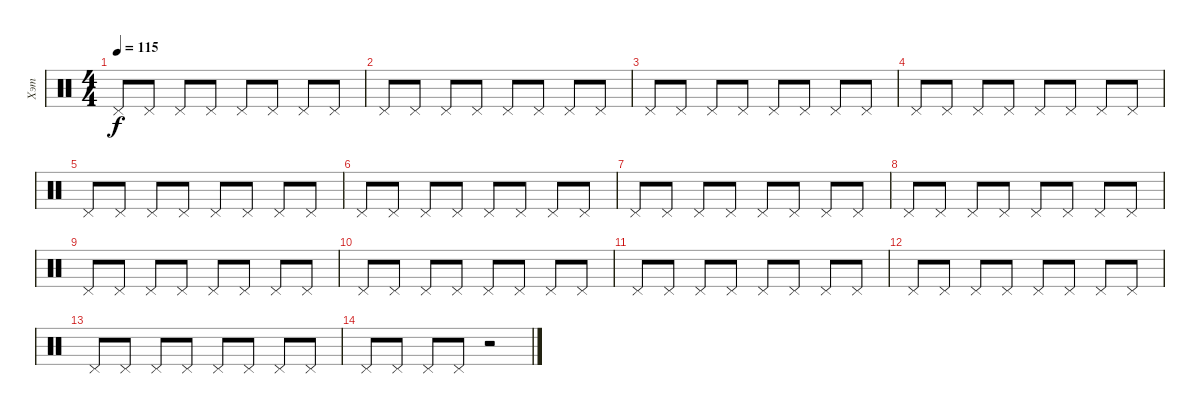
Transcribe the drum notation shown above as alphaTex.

\track ("Хэт" "Хэт") {instrument percussion}
\staff {score}
\articulation defaults
\ts (4 4)
\tempo 115
\clef neutral
\ks c "Pedal Hi-Hat (hit)".8{dy f} "Pedal Hi-Hat (hit)".8 "Pedal Hi-Hat (hit)".8 "Pedal Hi-Hat (hit)".8 "Pedal Hi-Hat (hit)".8 "Pedal Hi-Hat (hit)".8 "Pedal Hi-Hat (hit)".8 "Pedal Hi-Hat (hit)".8
|
"Pedal Hi-Hat (hit)".8 "Pedal Hi-Hat (hit)".8 "Pedal Hi-Hat (hit)".8 "Pedal Hi-Hat (hit)".8 "Pedal Hi-Hat (hit)".8 "Pedal Hi-Hat (hit)".8 "Pedal Hi-Hat (hit)".8 "Pedal Hi-Hat (hit)".8 |
"Pedal Hi-Hat (hit)".8 "Pedal Hi-Hat (hit)".8 "Pedal Hi-Hat (hit)".8 "Pedal Hi-Hat (hit)".8 "Pedal Hi-Hat (hit)".8 "Pedal Hi-Hat (hit)".8 "Pedal Hi-Hat (hit)".8 "Pedal Hi-Hat (hit)".8 |
"Pedal Hi-Hat (hit)".8 "Pedal Hi-Hat (hit)".8 "Pedal Hi-Hat (hit)".8 "Pedal Hi-Hat (hit)".8 "Pedal Hi-Hat (hit)".8 "Pedal Hi-Hat (hit)".8 "Pedal Hi-Hat (hit)".8 "Pedal Hi-Hat (hit)".8 |
"Pedal Hi-Hat (hit)".8 "Pedal Hi-Hat (hit)".8 "Pedal Hi-Hat (hit)".8 "Pedal Hi-Hat (hit)".8 "Pedal Hi-Hat (hit)".8 "Pedal Hi-Hat (hit)".8 "Pedal Hi-Hat (hit)".8 "Pedal Hi-Hat (hit)".8 |
"Pedal Hi-Hat (hit)".8 "Pedal Hi-Hat (hit)".8 "Pedal Hi-Hat (hit)".8 "Pedal Hi-Hat (hit)".8 "Pedal Hi-Hat (hit)".8 "Pedal Hi-Hat (hit)".8 "Pedal Hi-Hat (hit)".8 "Pedal Hi-Hat (hit)".8 |
"Pedal Hi-Hat (hit)".8 "Pedal Hi-Hat (hit)".8 "Pedal Hi-Hat (hit)".8 "Pedal Hi-Hat (hit)".8 "Pedal Hi-Hat (hit)".8 "Pedal Hi-Hat (hit)".8 "Pedal Hi-Hat (hit)".8 "Pedal Hi-Hat (hit)".8 |
"Pedal Hi-Hat (hit)".8 "Pedal Hi-Hat (hit)".8 "Pedal Hi-Hat (hit)".8 "Pedal Hi-Hat (hit)".8 "Pedal Hi-Hat (hit)".8 "Pedal Hi-Hat (hit)".8 "Pedal Hi-Hat (hit)".8 "Pedal Hi-Hat (hit)".8 |
"Pedal Hi-Hat (hit)".8 "Pedal Hi-Hat (hit)".8 "Pedal Hi-Hat (hit)".8 "Pedal Hi-Hat (hit)".8 "Pedal Hi-Hat (hit)".8 "Pedal Hi-Hat (hit)".8 "Pedal Hi-Hat (hit)".8 "Pedal Hi-Hat (hit)".8 |
"Pedal Hi-Hat (hit)".8 "Pedal Hi-Hat (hit)".8 "Pedal Hi-Hat (hit)".8 "Pedal Hi-Hat (hit)".8 "Pedal Hi-Hat (hit)".8 "Pedal Hi-Hat (hit)".8 "Pedal Hi-Hat (hit)".8 "Pedal Hi-Hat (hit)".8 |
"Pedal Hi-Hat (hit)".8 "Pedal Hi-Hat (hit)".8 "Pedal Hi-Hat (hit)".8 "Pedal Hi-Hat (hit)".8 "Pedal Hi-Hat (hit)".8 "Pedal Hi-Hat (hit)".8 "Pedal Hi-Hat (hit)".8 "Pedal Hi-Hat (hit)".8 |
"Pedal Hi-Hat (hit)".8 "Pedal Hi-Hat (hit)".8 "Pedal Hi-Hat (hit)".8 "Pedal Hi-Hat (hit)".8 "Pedal Hi-Hat (hit)".8 "Pedal Hi-Hat (hit)".8 "Pedal Hi-Hat (hit)".8 "Pedal Hi-Hat (hit)".8 |
"Pedal Hi-Hat (hit)".8 "Pedal Hi-Hat (hit)".8 "Pedal Hi-Hat (hit)".8 "Pedal Hi-Hat (hit)".8 "Pedal Hi-Hat (hit)".8 "Pedal Hi-Hat (hit)".8 "Pedal Hi-Hat (hit)".8 "Pedal Hi-Hat (hit)".8 |
"Pedal Hi-Hat (hit)".8 "Pedal Hi-Hat (hit)".8 "Pedal Hi-Hat (hit)".8 "Pedal Hi-Hat (hit)".8 r.2
